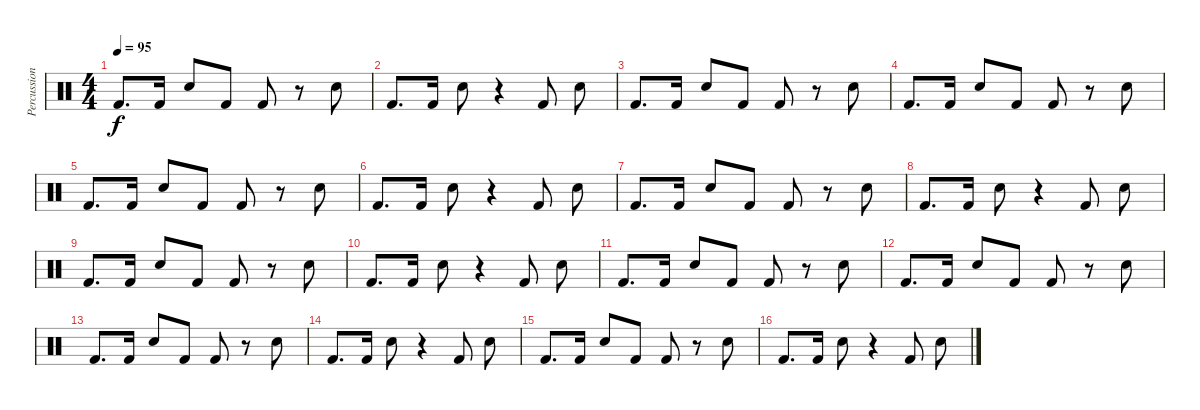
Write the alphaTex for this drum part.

\track ("Percussion" "Percussion") {instrument percussion}
\staff {score}
\articulation defaults
\ts (4 4)
\tempo 95
\clef neutral
\ks c "Kick (hit) 2".8{d dy f} "Kick (hit) 2".16 "Snare (hit) 2".8 "Kick (hit) 2".8 "Kick (hit) 2".8
r.8 "Snare (hit) 2".8 |
"Kick (hit) 2".8{d} "Kick (hit) 2".16 "Snare (hit) 2".8 r.4 "Kick (hit) 2".8 "Snare (hit) 2".8 |
"Kick (hit) 2".8{d} "Kick (hit) 2".16 "Snare (hit) 2".8 "Kick (hit) 2".8 "Kick (hit) 2".8 r.8 "Snare (hit) 2".8 |
"Kick (hit) 2".8{d} "Kick (hit) 2".16 "Snare (hit) 2".8 "Kick (hit) 2".8 "Kick (hit) 2".8 r.8 "Snare (hit) 2".8 |
"Kick (hit) 2".8{d} "Kick (hit) 2".16 "Snare (hit) 2".8 "Kick (hit) 2".8 "Kick (hit) 2".8 r.8 "Snare (hit) 2".8 |
"Kick (hit) 2".8{d} "Kick (hit) 2".16 "Snare (hit) 2".8 r.4 "Kick (hit) 2".8 "Snare (hit) 2".8 |
"Kick (hit) 2".8{d} "Kick (hit) 2".16 "Snare (hit) 2".8 "Kick (hit) 2".8 "Kick (hit) 2".8 r.8 "Snare (hit) 2".8 |
"Kick (hit) 2".8{d} "Kick (hit) 2".16 "Snare (hit) 2".8 r.4 "Kick (hit) 2".8 "Snare (hit) 2".8 |
"Kick (hit) 2".8{d} "Kick (hit) 2".16 "Snare (hit) 2".8 "Kick (hit) 2".8 "Kick (hit) 2".8 r.8 "Snare (hit) 2".8 |
"Kick (hit) 2".8{d} "Kick (hit) 2".16 "Snare (hit) 2".8 r.4 "Kick (hit) 2".8 "Snare (hit) 2".8 |
"Kick (hit) 2".8{d} "Kick (hit) 2".16 "Snare (hit) 2".8 "Kick (hit) 2".8 "Kick (hit) 2".8 r.8 "Snare (hit) 2".8 |
"Kick (hit) 2".8{d} "Kick (hit) 2".16 "Snare (hit) 2".8 "Kick (hit) 2".8 "Kick (hit) 2".8 r.8 "Snare (hit) 2".8 |
"Kick (hit) 2".8{d} "Kick (hit) 2".16 "Snare (hit) 2".8 "Kick (hit) 2".8 "Kick (hit) 2".8 r.8 "Snare (hit) 2".8 |
"Kick (hit) 2".8{d} "Kick (hit) 2".16 "Snare (hit) 2".8 r.4 "Kick (hit) 2".8 "Snare (hit) 2".8 |
"Kick (hit) 2".8{d} "Kick (hit) 2".16 "Snare (hit) 2".8 "Kick (hit) 2".8 "Kick (hit) 2".8 r.8 "Snare (hit) 2".8 |
"Kick (hit) 2".8{d} "Kick (hit) 2".16 "Snare (hit) 2".8 r.4 "Kick (hit) 2".8 "Snare (hit) 2".8
